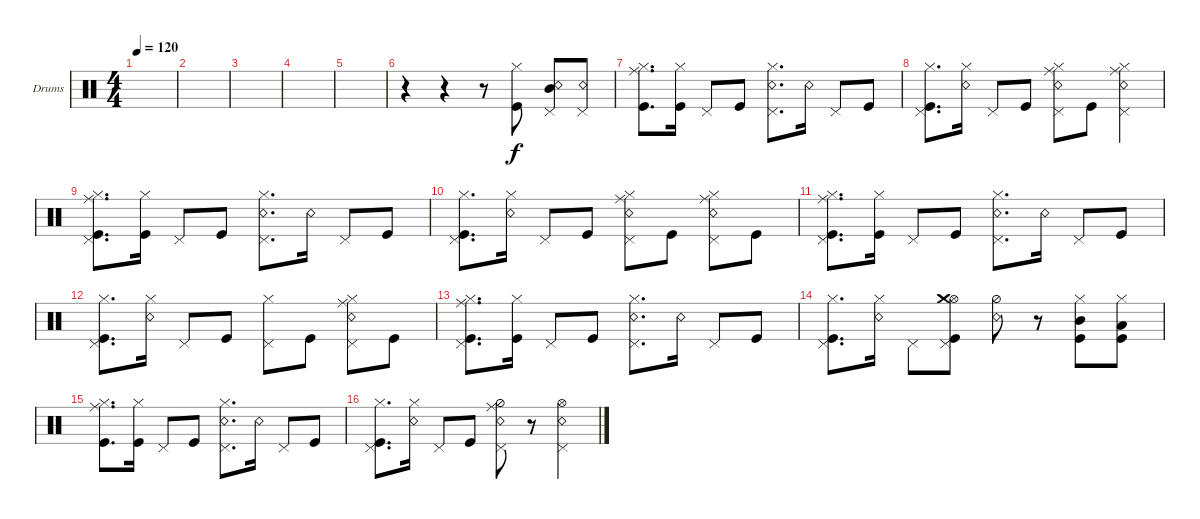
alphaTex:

\defaultSystemsLayout 4
\bracketExtendMode groupsimilarinstruments
\firstSystemTrackNameOrientation horizontal
\otherSystemsTrackNameOrientation horizontal
\track ("Drumkit" "Drums") {instrument percussion}
\staff {score}
\articulation defaults
\ts (4 4)
\tempo 120
\clef neutral
\ks c
|
|
|
|
|
r.4 r.4 r.8 ("Hi-Hat (closed)" "Kick (hit)").8 ("Pedal Hi-Hat (hit)" "Snare (rim shot)" "Mid Tom (hit)").8 ("Pedal Hi-Hat (hit)" "Snare (rim shot)").8 |
("Kick (hit)" "Ride (middle)" "Hi-Hat (closed)").8{d} ("Kick (hit)" "Hi-Hat (closed)").16 "Pedal Hi-Hat (hit)".8 "Kick (hit)".8 ("Snare (rim shot)" "Hi-Hat (closed)" "Pedal Hi-Hat (hit)").8{d} "Snare (rim shot)".16 "Pedal Hi-Hat (hit)".8 "Kick (hit)".8 |
("Kick (hit)" "Hi-Hat (closed)" "Pedal Hi-Hat (hit)").8{d} ("Snare (rim shot)" "Hi-Hat (closed)").16 "Pedal Hi-Hat (hit)".8 "Kick (hit)".8 ("Snare (rim shot)" "Ride (middle)" "Hi-Hat (closed)" "Pedal Hi-Hat (hit)").8 "Kick (hit)".8 ("Snare (rim shot)" "Ride (middle)" "Hi-Hat (closed)" "Pedal Hi-Hat (hit)").4 |
("Kick (hit)" "Ride (middle)" "Hi-Hat (closed)" "Pedal Hi-Hat (hit)").8{d} ("Kick (hit)" "Hi-Hat (closed)").16 "Pedal Hi-Hat (hit)".8 "Kick (hit)".8 ("Snare (rim shot)" "Hi-Hat (closed)" "Pedal Hi-Hat (hit)").8{d} "Snare (rim shot)".16 "Pedal Hi-Hat (hit)".8 "Kick (hit)".8 |
("Kick (hit)" "Hi-Hat (closed)" "Pedal Hi-Hat (hit)").8{d} ("Snare (rim shot)" "Hi-Hat (closed)").16 "Pedal Hi-Hat (hit)".8 "Kick (hit)".8 ("Snare (rim shot)" "Ride (middle)" "Hi-Hat (closed)" "Pedal Hi-Hat (hit)").8 "Kick (hit)".8 ("Snare (rim shot)" "Ride (middle)" "Hi-Hat (closed)" "Pedal Hi-Hat (hit)").8 "Kick (hit)".8 |
("Kick (hit)" "Ride (middle)" "Hi-Hat (closed)" "Pedal Hi-Hat (hit)").8{d} ("Kick (hit)" "Hi-Hat (closed)").16 "Pedal Hi-Hat (hit)".8 "Kick (hit)".8 ("Snare (rim shot)" "Hi-Hat (closed)" "Pedal Hi-Hat (hit)").8{d} "Snare (rim shot)".16 "Pedal Hi-Hat (hit)".8 "Kick (hit)".8 |
("Kick (hit)" "Hi-Hat (closed)" "Pedal Hi-Hat (hit)").8{d} ("Snare (rim shot)" "Hi-Hat (closed)").16 "Pedal Hi-Hat (hit)".8 "Kick (hit)".8 ("Pedal Hi-Hat (hit)" "Hi-Hat (closed)").8 "Kick (hit)".8 ("Snare (rim shot)" "Ride (middle)" "Hi-Hat (closed)" "Pedal Hi-Hat (hit)").8 "Kick (hit)".8 |
("Kick (hit)" "Ride (middle)" "Hi-Hat (closed)" "Pedal Hi-Hat (hit)").8{d} ("Kick (hit)" "Hi-Hat (closed)").16 "Pedal Hi-Hat (hit)".8 "Kick (hit)".8 ("Snare (rim shot)" "Hi-Hat (closed)" "Pedal Hi-Hat (hit)").8{d} "Snare (rim shot)".16 "Pedal Hi-Hat (hit)".8 "Kick (hit)".8 |
("Kick (hit)" "Hi-Hat (closed)" "Pedal Hi-Hat (hit)").8{d} ("Snare (rim shot)" "Hi-Hat (closed)").16 "Pedal Hi-Hat (hit)".8 ("Kick (hit)" "Pedal Hi-Hat (hit)" "Hi-Hat (open)" "Crash medium (hit)").8 ("Snare (rim shot)" "Hi-Hat (half)").8 r.8 ("Hi-Hat (closed)" "Mid Tom (hit)" "Kick (hit)").8 ("Hi-Hat (closed)" "Low Tom (hit)" "Kick (hit)").8 |
("Kick (hit)" "Ride (middle)" "Hi-Hat (closed)").8{d} ("Kick (hit)" "Hi-Hat (closed)").16 "Pedal Hi-Hat (hit)".8 "Kick (hit)".8 ("Snare (rim shot)" "Hi-Hat (closed)" "Pedal Hi-Hat (hit)").8{d} "Snare (rim shot)".16 "Pedal Hi-Hat (hit)".8 "Kick (hit)".8 |
("Kick (hit)" "Hi-Hat (closed)" "Pedal Hi-Hat (hit)").8{d} ("Snare (rim shot)" "Hi-Hat (closed)").16 "Pedal Hi-Hat (hit)".8 "Kick (hit)".8 ("Snare (rim shot)" "Ride (middle)" "Hi-Hat (half)" "Pedal Hi-Hat (hit)").8 r.8 ("Snare (rim shot)" "Hi-Hat (open)" "Pedal Hi-Hat (hit)").4
